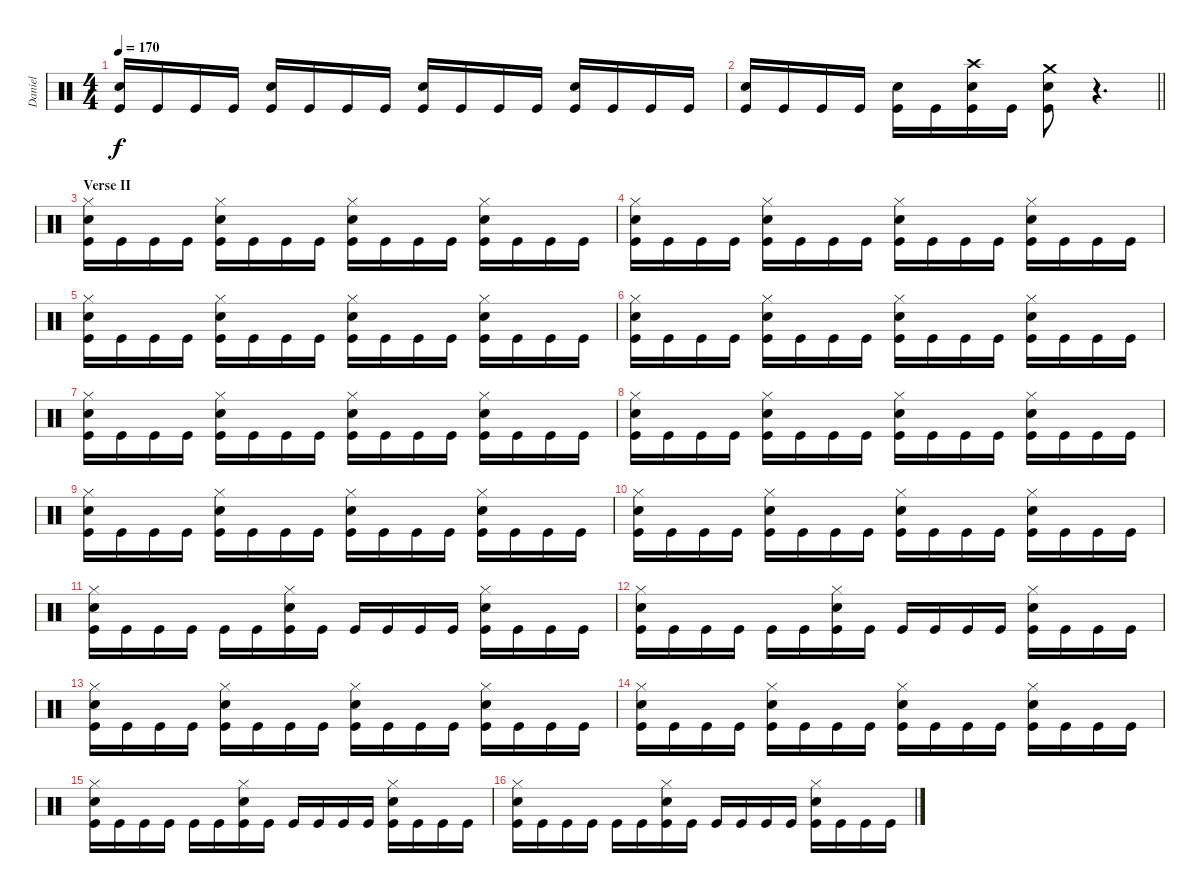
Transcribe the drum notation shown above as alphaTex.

\track ("Daniel" "Daniel") {instrument percussion}
\staff {score}
\articulation defaults
\ts (4 4)
\tempo 170
\clef neutral
\ks c
("Kick (hit)" "Snare (hit) 2").16{dy f} "Kick (hit)".16 "Kick (hit)".16 "Kick (hit)".16 ("Kick (hit)" "Snare (hit) 2").16 "Kick (hit)".16 "Kick (hit)".16 "Kick (hit)".16 ("Kick (hit)" "Snare (hit) 2").16 "Kick (hit)".16 "Kick (hit)".16 "Kick (hit)".16 ("Kick (hit)" "Snare (hit) 2").16 "Kick (hit)".16 "Kick (hit)".16 "Kick (hit)".16 |
\barLineRight lightlight
("Kick (hit)" "Snare (hit) 2").16 "Kick (hit)".16 "Kick (hit)".16 "Kick (hit)".16 ("Kick (hit)" "Snare (hit) 2").16 "Kick (hit)".16 ("Kick (hit)" "Snare (hit) 2" "Crash high (hit)").16 "Kick (hit)".16 ("Kick (hit)" "Snare (hit) 2" "Crash medium (hit)").8 r.4{d} |
\section ("" "Verse II")
("Kick (hit)" "Snare (hit) 2" "Hi-Hat (closed)").16 "Kick (hit)".16 "Kick (hit)".16 "Kick (hit)".16 ("Kick (hit)" "Snare (hit) 2" "Hi-Hat (closed)").16 "Kick (hit)".16 "Kick (hit)".16 "Kick (hit)".16 ("Kick (hit)" "Snare (hit) 2" "Hi-Hat (closed)").16 "Kick (hit)".16 "Kick (hit)".16 "Kick (hit)".16 ("Kick (hit)" "Snare (hit) 2" "Hi-Hat (closed)").16 "Kick (hit)".16 "Kick (hit)".16 "Kick (hit)".16 |
("Kick (hit)" "Snare (hit) 2" "Hi-Hat (closed)").16 "Kick (hit)".16 "Kick (hit)".16 "Kick (hit)".16 ("Kick (hit)" "Snare (hit) 2" "Hi-Hat (closed)").16 "Kick (hit)".16 "Kick (hit)".16 "Kick (hit)".16 ("Kick (hit)" "Snare (hit) 2" "Hi-Hat (closed)").16 "Kick (hit)".16 "Kick (hit)".16 "Kick (hit)".16 ("Kick (hit)" "Snare (hit) 2" "Hi-Hat (closed)").16 "Kick (hit)".16 "Kick (hit)".16 "Kick (hit)".16 |
("Kick (hit)" "Snare (hit) 2" "Hi-Hat (closed)").16 "Kick (hit)".16 "Kick (hit)".16 "Kick (hit)".16 ("Kick (hit)" "Snare (hit) 2" "Hi-Hat (closed)").16 "Kick (hit)".16 "Kick (hit)".16 "Kick (hit)".16 ("Kick (hit)" "Snare (hit) 2" "Hi-Hat (closed)").16 "Kick (hit)".16 "Kick (hit)".16 "Kick (hit)".16 ("Kick (hit)" "Snare (hit) 2" "Hi-Hat (closed)").16 "Kick (hit)".16 "Kick (hit)".16 "Kick (hit)".16 |
("Kick (hit)" "Snare (hit) 2" "Hi-Hat (closed)").16 "Kick (hit)".16 "Kick (hit)".16 "Kick (hit)".16 ("Kick (hit)" "Snare (hit) 2" "Hi-Hat (closed)").16 "Kick (hit)".16 "Kick (hit)".16 "Kick (hit)".16 ("Kick (hit)" "Snare (hit) 2" "Hi-Hat (closed)").16 "Kick (hit)".16 "Kick (hit)".16 "Kick (hit)".16 ("Kick (hit)" "Snare (hit) 2" "Hi-Hat (closed)").16 "Kick (hit)".16 "Kick (hit)".16 "Kick (hit)".16 |
("Kick (hit)" "Snare (hit) 2" "Hi-Hat (closed)").16 "Kick (hit)".16 "Kick (hit)".16 "Kick (hit)".16 ("Kick (hit)" "Snare (hit) 2" "Hi-Hat (closed)").16 "Kick (hit)".16 "Kick (hit)".16 "Kick (hit)".16 ("Kick (hit)" "Snare (hit) 2" "Hi-Hat (closed)").16 "Kick (hit)".16 "Kick (hit)".16 "Kick (hit)".16 ("Kick (hit)" "Snare (hit) 2" "Hi-Hat (closed)").16 "Kick (hit)".16 "Kick (hit)".16 "Kick (hit)".16 |
("Kick (hit)" "Snare (hit) 2" "Hi-Hat (closed)").16 "Kick (hit)".16 "Kick (hit)".16 "Kick (hit)".16 ("Kick (hit)" "Snare (hit) 2" "Hi-Hat (closed)").16 "Kick (hit)".16 "Kick (hit)".16 "Kick (hit)".16 ("Kick (hit)" "Snare (hit) 2" "Hi-Hat (closed)").16 "Kick (hit)".16 "Kick (hit)".16 "Kick (hit)".16 ("Kick (hit)" "Snare (hit) 2" "Hi-Hat (closed)").16 "Kick (hit)".16 "Kick (hit)".16 "Kick (hit)".16 |
("Kick (hit)" "Snare (hit) 2" "Hi-Hat (closed)").16 "Kick (hit)".16 "Kick (hit)".16 "Kick (hit)".16 ("Kick (hit)" "Snare (hit) 2" "Hi-Hat (closed)").16 "Kick (hit)".16 "Kick (hit)".16 "Kick (hit)".16 ("Kick (hit)" "Snare (hit) 2" "Hi-Hat (closed)").16 "Kick (hit)".16 "Kick (hit)".16 "Kick (hit)".16 ("Kick (hit)" "Snare (hit) 2" "Hi-Hat (closed)").16 "Kick (hit)".16 "Kick (hit)".16 "Kick (hit)".16 |
("Kick (hit)" "Snare (hit) 2" "Hi-Hat (closed)").16 "Kick (hit)".16 "Kick (hit)".16 "Kick (hit)".16 ("Kick (hit)" "Snare (hit) 2" "Hi-Hat (closed)").16 "Kick (hit)".16 "Kick (hit)".16 "Kick (hit)".16 ("Kick (hit)" "Snare (hit) 2" "Hi-Hat (closed)").16 "Kick (hit)".16 "Kick (hit)".16 "Kick (hit)".16 ("Kick (hit)" "Snare (hit) 2" "Hi-Hat (closed)").16 "Kick (hit)".16 "Kick (hit)".16 "Kick (hit)".16 |
("Kick (hit)" "Snare (hit) 2" "Hi-Hat (closed)").16 "Kick (hit)".16 "Kick (hit)".16 "Kick (hit)".16 "Kick (hit)".16 "Kick (hit)".16 ("Kick (hit)" "Snare (hit) 2" "Hi-Hat (closed)").16 "Kick (hit)".16 "Kick (hit)".16 "Kick (hit)".16 "Kick (hit)".16 "Kick (hit)".16 ("Kick (hit)" "Snare (hit) 2" "Hi-Hat (closed)").16 "Kick (hit)".16 "Kick (hit)".16 "Kick (hit)".16 |
("Kick (hit)" "Snare (hit) 2" "Hi-Hat (closed)").16 "Kick (hit)".16 "Kick (hit)".16 "Kick (hit)".16 "Kick (hit)".16 "Kick (hit)".16 ("Kick (hit)" "Snare (hit) 2" "Hi-Hat (closed)").16 "Kick (hit)".16 "Kick (hit)".16 "Kick (hit)".16 "Kick (hit)".16 "Kick (hit)".16 ("Kick (hit)" "Snare (hit) 2" "Hi-Hat (closed)").16 "Kick (hit)".16 "Kick (hit)".16 "Kick (hit)".16 |
("Kick (hit)" "Snare (hit) 2" "Hi-Hat (closed)").16 "Kick (hit)".16 "Kick (hit)".16 "Kick (hit)".16 ("Kick (hit)" "Snare (hit) 2" "Hi-Hat (closed)").16 "Kick (hit)".16 "Kick (hit)".16 "Kick (hit)".16 ("Kick (hit)" "Snare (hit) 2" "Hi-Hat (closed)").16 "Kick (hit)".16 "Kick (hit)".16 "Kick (hit)".16 ("Kick (hit)" "Snare (hit) 2" "Hi-Hat (closed)").16 "Kick (hit)".16 "Kick (hit)".16 "Kick (hit)".16 |
("Kick (hit)" "Snare (hit) 2" "Hi-Hat (closed)").16 "Kick (hit)".16 "Kick (hit)".16 "Kick (hit)".16 ("Kick (hit)" "Snare (hit) 2" "Hi-Hat (closed)").16 "Kick (hit)".16 "Kick (hit)".16 "Kick (hit)".16 ("Kick (hit)" "Snare (hit) 2" "Hi-Hat (closed)").16 "Kick (hit)".16 "Kick (hit)".16 "Kick (hit)".16 ("Kick (hit)" "Snare (hit) 2" "Hi-Hat (closed)").16 "Kick (hit)".16 "Kick (hit)".16 "Kick (hit)".16 |
("Kick (hit)" "Snare (hit) 2" "Hi-Hat (closed)").16 "Kick (hit)".16 "Kick (hit)".16 "Kick (hit)".16 "Kick (hit)".16 "Kick (hit)".16 ("Kick (hit)" "Snare (hit) 2" "Hi-Hat (closed)").16 "Kick (hit)".16 "Kick (hit)".16 "Kick (hit)".16 "Kick (hit)".16 "Kick (hit)".16 ("Kick (hit)" "Snare (hit) 2" "Hi-Hat (closed)").16 "Kick (hit)".16 "Kick (hit)".16 "Kick (hit)".16 |
("Kick (hit)" "Snare (hit) 2" "Hi-Hat (closed)").16 "Kick (hit)".16 "Kick (hit)".16 "Kick (hit)".16 "Kick (hit)".16 "Kick (hit)".16 ("Kick (hit)" "Snare (hit) 2" "Hi-Hat (closed)").16 "Kick (hit)".16 "Kick (hit)".16 "Kick (hit)".16 "Kick (hit)".16 "Kick (hit)".16 ("Kick (hit)" "Snare (hit) 2" "Hi-Hat (closed)").16 "Kick (hit)".16 "Kick (hit)".16 "Kick (hit)".16
